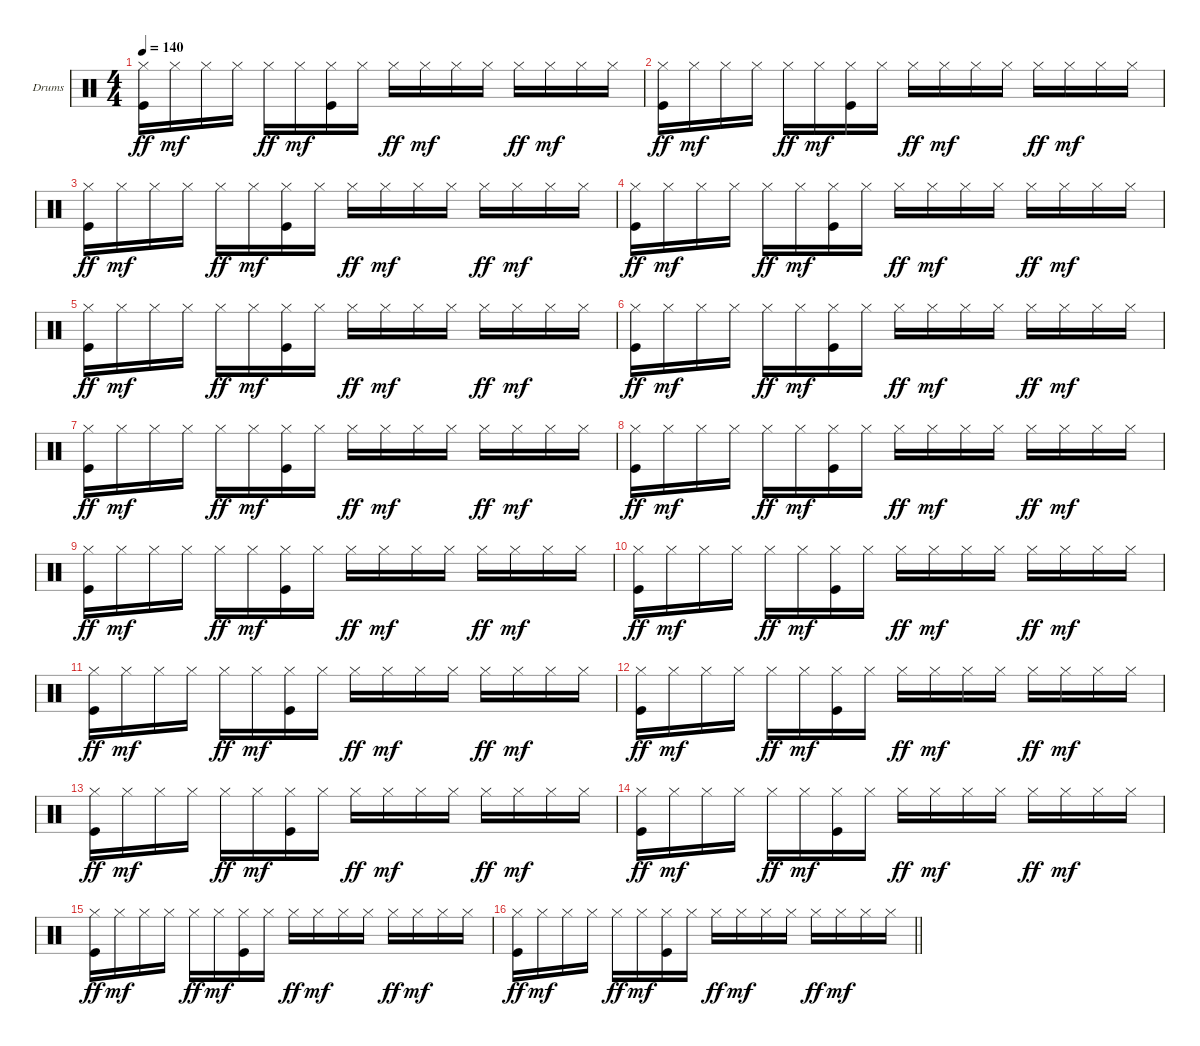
\bracketExtendMode groupsimilarinstruments
\firstSystemTrackNameOrientation horizontal
\otherSystemsTrackNameOrientation horizontal
\track ("Drumkit" "Drums") {instrument percussion}
\staff {score}
\articulation defaults
\ts (4 4)
\tempo 140
\clef neutral
\ks c
("Hi-Hat (closed)" "Kick (hit)").16{dy ff} "Hi-Hat (closed)".16{dy mf} "Hi-Hat (closed)".16 "Hi-Hat (closed)".16 "Hi-Hat (closed)".16{dy ff} "Hi-Hat (closed)".16{dy mf} ("Hi-Hat (closed)" "Kick (hit)").16 "Hi-Hat (closed)".16 "Hi-Hat (closed)".16{dy ff} "Hi-Hat (closed)".16{dy mf} "Hi-Hat (closed)".16 "Hi-Hat (closed)".16 "Hi-Hat (closed)".16{dy ff} "Hi-Hat (closed)".16{dy mf} "Hi-Hat (closed)".16 "Hi-Hat (closed)".16 |
("Hi-Hat (closed)" "Kick (hit)").16{dy ff} "Hi-Hat (closed)".16{dy mf} "Hi-Hat (closed)".16 "Hi-Hat (closed)".16 "Hi-Hat (closed)".16{dy ff} "Hi-Hat (closed)".16{dy mf} ("Hi-Hat (closed)" "Kick (hit)").16 "Hi-Hat (closed)".16 "Hi-Hat (closed)".16{dy ff} "Hi-Hat (closed)".16{dy mf} "Hi-Hat (closed)".16 "Hi-Hat (closed)".16 "Hi-Hat (closed)".16{dy ff} "Hi-Hat (closed)".16{dy mf} "Hi-Hat (closed)".16 "Hi-Hat (closed)".16 |
("Hi-Hat (closed)" "Kick (hit)").16{dy ff} "Hi-Hat (closed)".16{dy mf} "Hi-Hat (closed)".16 "Hi-Hat (closed)".16 "Hi-Hat (closed)".16{dy ff} "Hi-Hat (closed)".16{dy mf} ("Hi-Hat (closed)" "Kick (hit)").16 "Hi-Hat (closed)".16 "Hi-Hat (closed)".16{dy ff} "Hi-Hat (closed)".16{dy mf} "Hi-Hat (closed)".16 "Hi-Hat (closed)".16 "Hi-Hat (closed)".16{dy ff} "Hi-Hat (closed)".16{dy mf} "Hi-Hat (closed)".16 "Hi-Hat (closed)".16 |
("Hi-Hat (closed)" "Kick (hit)").16{dy ff} "Hi-Hat (closed)".16{dy mf} "Hi-Hat (closed)".16 "Hi-Hat (closed)".16 "Hi-Hat (closed)".16{dy ff} "Hi-Hat (closed)".16{dy mf} ("Hi-Hat (closed)" "Kick (hit)").16 "Hi-Hat (closed)".16 "Hi-Hat (closed)".16{dy ff} "Hi-Hat (closed)".16{dy mf} "Hi-Hat (closed)".16 "Hi-Hat (closed)".16 "Hi-Hat (closed)".16{dy ff} "Hi-Hat (closed)".16{dy mf} "Hi-Hat (closed)".16 "Hi-Hat (closed)".16 |
("Hi-Hat (closed)" "Kick (hit)").16{dy ff} "Hi-Hat (closed)".16{dy mf} "Hi-Hat (closed)".16 "Hi-Hat (closed)".16 "Hi-Hat (closed)".16{dy ff} "Hi-Hat (closed)".16{dy mf} ("Hi-Hat (closed)" "Kick (hit)").16 "Hi-Hat (closed)".16 "Hi-Hat (closed)".16{dy ff} "Hi-Hat (closed)".16{dy mf} "Hi-Hat (closed)".16 "Hi-Hat (closed)".16 "Hi-Hat (closed)".16{dy ff} "Hi-Hat (closed)".16{dy mf} "Hi-Hat (closed)".16 "Hi-Hat (closed)".16 |
("Hi-Hat (closed)" "Kick (hit)").16{dy ff} "Hi-Hat (closed)".16{dy mf} "Hi-Hat (closed)".16 "Hi-Hat (closed)".16 "Hi-Hat (closed)".16{dy ff} "Hi-Hat (closed)".16{dy mf} ("Hi-Hat (closed)" "Kick (hit)").16 "Hi-Hat (closed)".16 "Hi-Hat (closed)".16{dy ff} "Hi-Hat (closed)".16{dy mf} "Hi-Hat (closed)".16 "Hi-Hat (closed)".16 "Hi-Hat (closed)".16{dy ff} "Hi-Hat (closed)".16{dy mf} "Hi-Hat (closed)".16 "Hi-Hat (closed)".16 |
("Hi-Hat (closed)" "Kick (hit)").16{dy ff} "Hi-Hat (closed)".16{dy mf} "Hi-Hat (closed)".16 "Hi-Hat (closed)".16 "Hi-Hat (closed)".16{dy ff} "Hi-Hat (closed)".16{dy mf} ("Hi-Hat (closed)" "Kick (hit)").16 "Hi-Hat (closed)".16 "Hi-Hat (closed)".16{dy ff} "Hi-Hat (closed)".16{dy mf} "Hi-Hat (closed)".16 "Hi-Hat (closed)".16 "Hi-Hat (closed)".16{dy ff} "Hi-Hat (closed)".16{dy mf} "Hi-Hat (closed)".16 "Hi-Hat (closed)".16 |
("Hi-Hat (closed)" "Kick (hit)").16{dy ff} "Hi-Hat (closed)".16{dy mf} "Hi-Hat (closed)".16 "Hi-Hat (closed)".16 "Hi-Hat (closed)".16{dy ff} "Hi-Hat (closed)".16{dy mf} ("Hi-Hat (closed)" "Kick (hit)").16 "Hi-Hat (closed)".16 "Hi-Hat (closed)".16{dy ff} "Hi-Hat (closed)".16{dy mf} "Hi-Hat (closed)".16 "Hi-Hat (closed)".16 "Hi-Hat (closed)".16{dy ff} "Hi-Hat (closed)".16{dy mf} "Hi-Hat (closed)".16 "Hi-Hat (closed)".16 |
("Hi-Hat (closed)" "Kick (hit)").16{dy ff} "Hi-Hat (closed)".16{dy mf} "Hi-Hat (closed)".16 "Hi-Hat (closed)".16 "Hi-Hat (closed)".16{dy ff} "Hi-Hat (closed)".16{dy mf} ("Hi-Hat (closed)" "Kick (hit)").16 "Hi-Hat (closed)".16 "Hi-Hat (closed)".16{dy ff} "Hi-Hat (closed)".16{dy mf} "Hi-Hat (closed)".16 "Hi-Hat (closed)".16 "Hi-Hat (closed)".16{dy ff} "Hi-Hat (closed)".16{dy mf} "Hi-Hat (closed)".16 "Hi-Hat (closed)".16 |
("Hi-Hat (closed)" "Kick (hit)").16{dy ff} "Hi-Hat (closed)".16{dy mf} "Hi-Hat (closed)".16 "Hi-Hat (closed)".16 "Hi-Hat (closed)".16{dy ff} "Hi-Hat (closed)".16{dy mf} ("Hi-Hat (closed)" "Kick (hit)").16 "Hi-Hat (closed)".16 "Hi-Hat (closed)".16{dy ff} "Hi-Hat (closed)".16{dy mf} "Hi-Hat (closed)".16 "Hi-Hat (closed)".16 "Hi-Hat (closed)".16{dy ff} "Hi-Hat (closed)".16{dy mf} "Hi-Hat (closed)".16 "Hi-Hat (closed)".16 |
("Hi-Hat (closed)" "Kick (hit)").16{dy ff} "Hi-Hat (closed)".16{dy mf} "Hi-Hat (closed)".16 "Hi-Hat (closed)".16 "Hi-Hat (closed)".16{dy ff} "Hi-Hat (closed)".16{dy mf} ("Hi-Hat (closed)" "Kick (hit)").16 "Hi-Hat (closed)".16 "Hi-Hat (closed)".16{dy ff} "Hi-Hat (closed)".16{dy mf} "Hi-Hat (closed)".16 "Hi-Hat (closed)".16 "Hi-Hat (closed)".16{dy ff} "Hi-Hat (closed)".16{dy mf} "Hi-Hat (closed)".16 "Hi-Hat (closed)".16 |
("Hi-Hat (closed)" "Kick (hit)").16{dy ff} "Hi-Hat (closed)".16{dy mf} "Hi-Hat (closed)".16 "Hi-Hat (closed)".16 "Hi-Hat (closed)".16{dy ff} "Hi-Hat (closed)".16{dy mf} ("Hi-Hat (closed)" "Kick (hit)").16 "Hi-Hat (closed)".16 "Hi-Hat (closed)".16{dy ff} "Hi-Hat (closed)".16{dy mf} "Hi-Hat (closed)".16 "Hi-Hat (closed)".16 "Hi-Hat (closed)".16{dy ff} "Hi-Hat (closed)".16{dy mf} "Hi-Hat (closed)".16 "Hi-Hat (closed)".16 |
("Hi-Hat (closed)" "Kick (hit)").16{dy ff} "Hi-Hat (closed)".16{dy mf} "Hi-Hat (closed)".16 "Hi-Hat (closed)".16 "Hi-Hat (closed)".16{dy ff} "Hi-Hat (closed)".16{dy mf} ("Hi-Hat (closed)" "Kick (hit)").16 "Hi-Hat (closed)".16 "Hi-Hat (closed)".16{dy ff} "Hi-Hat (closed)".16{dy mf} "Hi-Hat (closed)".16 "Hi-Hat (closed)".16 "Hi-Hat (closed)".16{dy ff} "Hi-Hat (closed)".16{dy mf} "Hi-Hat (closed)".16 "Hi-Hat (closed)".16 |
("Hi-Hat (closed)" "Kick (hit)").16{dy ff} "Hi-Hat (closed)".16{dy mf} "Hi-Hat (closed)".16 "Hi-Hat (closed)".16 "Hi-Hat (closed)".16{dy ff} "Hi-Hat (closed)".16{dy mf} ("Hi-Hat (closed)" "Kick (hit)").16 "Hi-Hat (closed)".16 "Hi-Hat (closed)".16{dy ff} "Hi-Hat (closed)".16{dy mf} "Hi-Hat (closed)".16 "Hi-Hat (closed)".16 "Hi-Hat (closed)".16{dy ff} "Hi-Hat (closed)".16{dy mf} "Hi-Hat (closed)".16 "Hi-Hat (closed)".16 |
("Hi-Hat (closed)" "Kick (hit)").16{dy ff} "Hi-Hat (closed)".16{dy mf} "Hi-Hat (closed)".16 "Hi-Hat (closed)".16 "Hi-Hat (closed)".16{dy ff} "Hi-Hat (closed)".16{dy mf} ("Hi-Hat (closed)" "Kick (hit)").16 "Hi-Hat (closed)".16 "Hi-Hat (closed)".16{dy ff} "Hi-Hat (closed)".16{dy mf} "Hi-Hat (closed)".16 "Hi-Hat (closed)".16 "Hi-Hat (closed)".16{dy ff} "Hi-Hat (closed)".16{dy mf} "Hi-Hat (closed)".16 "Hi-Hat (closed)".16 |
\barLineRight lightlight
("Hi-Hat (closed)" "Kick (hit)").16{dy ff} "Hi-Hat (closed)".16{dy mf} "Hi-Hat (closed)".16 "Hi-Hat (closed)".16 "Hi-Hat (closed)".16{dy ff} "Hi-Hat (closed)".16{dy mf} ("Hi-Hat (closed)" "Kick (hit)").16 "Hi-Hat (closed)".16 "Hi-Hat (closed)".16{dy ff} "Hi-Hat (closed)".16{dy mf} "Hi-Hat (closed)".16 "Hi-Hat (closed)".16 "Hi-Hat (closed)".16{dy ff} "Hi-Hat (closed)".16{dy mf} "Hi-Hat (closed)".16 "Hi-Hat (closed)".16
